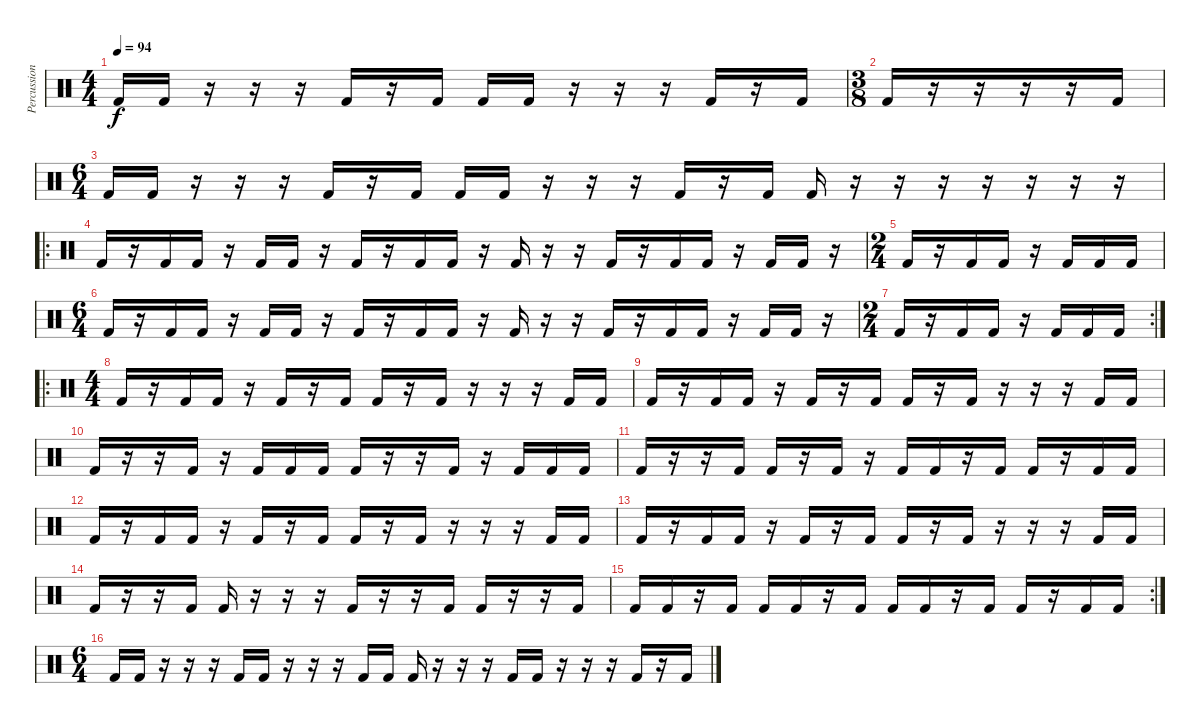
\track ("Percussion" "Percussion") {instrument percussion}
\staff {score}
\articulation defaults
\ts (4 4)
\tempo 94
\clef neutral
\ks c "Kick (hit) 2".16{dy f} "Kick (hit) 2".16
r.16 r.16 r.16 "Kick (hit) 2".16 r.16 "Kick (hit) 2".16 "Kick (hit) 2".16 "Kick (hit) 2".16 r.16 r.16 r.16 "Kick (hit) 2".16 r.16 "Kick (hit) 2".16 |
\ts (3 8)
"Kick (hit) 2".16 r.16 r.16 r.16 r.16 "Kick (hit) 2".16 |
\ts (6 4)
"Kick (hit) 2".16 "Kick (hit) 2".16 r.16 r.16 r.16 "Kick (hit) 2".16 r.16 "Kick (hit) 2".16 "Kick (hit) 2".16 "Kick (hit) 2".16 r.16 r.16 r.16 "Kick (hit) 2".16 r.16 "Kick (hit) 2".16 "Kick (hit) 2".16 r.16 r.16 r.16 r.16 r.16 r.16 r.16 |
\ro "Kick (hit) 2".16
r.16 "Kick (hit) 2".16 "Kick (hit) 2".16 r.16 "Kick (hit) 2".16 "Kick (hit) 2".16 r.16 "Kick (hit) 2".16 r.16 "Kick (hit) 2".16 "Kick (hit) 2".16 r.16 "Kick (hit) 2".16 r.16 r.16 "Kick (hit) 2".16 r.16 "Kick (hit) 2".16 "Kick (hit) 2".16 r.16 "Kick (hit) 2".16 "Kick (hit) 2".16 r.16 |
\ts (2 4)
"Kick (hit) 2".16 r.16 "Kick (hit) 2".16 "Kick (hit) 2".16 r.16 "Kick (hit) 2".16 "Kick (hit) 2".16 "Kick (hit) 2".16 |
\ts (6 4)
"Kick (hit) 2".16 r.16 "Kick (hit) 2".16 "Kick (hit) 2".16 r.16 "Kick (hit) 2".16 "Kick (hit) 2".16 r.16 "Kick (hit) 2".16 r.16 "Kick (hit) 2".16 "Kick (hit) 2".16 r.16 "Kick (hit) 2".16 r.16 r.16 "Kick (hit) 2".16 r.16 "Kick (hit) 2".16 "Kick (hit) 2".16 r.16 "Kick (hit) 2".16 "Kick (hit) 2".16 r.16 |
\rc 2
\ts (2 4)
"Kick (hit) 2".16 r.16 "Kick (hit) 2".16 "Kick (hit) 2".16 r.16 "Kick (hit) 2".16 "Kick (hit) 2".16 "Kick (hit) 2".16 |
\ro
\ts (4 4)
"Kick (hit) 2".16 r.16 "Kick (hit) 2".16 "Kick (hit) 2".16 r.16 "Kick (hit) 2".16 r.16 "Kick (hit) 2".16 "Kick (hit) 2".16 r.16 "Kick (hit) 2".16 r.16 r.16 r.16 "Kick (hit) 2".16 "Kick (hit) 2".16 |
"Kick (hit) 2".16 r.16 "Kick (hit) 2".16 "Kick (hit) 2".16 r.16 "Kick (hit) 2".16 r.16 "Kick (hit) 2".16 "Kick (hit) 2".16 r.16 "Kick (hit) 2".16 r.16 r.16 r.16 "Kick (hit) 2".16 "Kick (hit) 2".16 |
"Kick (hit) 2".16 r.16 r.16 "Kick (hit) 2".16 r.16 "Kick (hit) 2".16 "Kick (hit) 2".16 "Kick (hit) 2".16 "Kick (hit) 2".16 r.16 r.16 "Kick (hit) 2".16 r.16 "Kick (hit) 2".16 "Kick (hit) 2".16 "Kick (hit) 2".16 |
"Kick (hit) 2".16 r.16 r.16 "Kick (hit) 2".16 "Kick (hit) 2".16 r.16 "Kick (hit) 2".16 r.16 "Kick (hit) 2".16 "Kick (hit) 2".16 r.16 "Kick (hit) 2".16 "Kick (hit) 2".16 r.16 "Kick (hit) 2".16 "Kick (hit) 2".16 |
"Kick (hit) 2".16 r.16 "Kick (hit) 2".16 "Kick (hit) 2".16 r.16 "Kick (hit) 2".16 r.16 "Kick (hit) 2".16 "Kick (hit) 2".16 r.16 "Kick (hit) 2".16 r.16 r.16 r.16 "Kick (hit) 2".16 "Kick (hit) 2".16 |
"Kick (hit) 2".16 r.16 "Kick (hit) 2".16 "Kick (hit) 2".16 r.16 "Kick (hit) 2".16 r.16 "Kick (hit) 2".16 "Kick (hit) 2".16 r.16 "Kick (hit) 2".16 r.16 r.16 r.16 "Kick (hit) 2".16 "Kick (hit) 2".16 |
"Kick (hit) 2".16 r.16 r.16 "Kick (hit) 2".16 "Kick (hit) 2".16 r.16 r.16 r.16 "Kick (hit) 2".16 r.16 r.16 "Kick (hit) 2".16 "Kick (hit) 2".16 r.16 r.16 "Kick (hit) 2".16 |
\rc 2 "Kick (hit) 2".16 "Kick (hit) 2".16
r.16 "Kick (hit) 2".16 "Kick (hit) 2".16 "Kick (hit) 2".16 r.16 "Kick (hit) 2".16 "Kick (hit) 2".16 "Kick (hit) 2".16 r.16 "Kick (hit) 2".16 "Kick (hit) 2".16 r.16 "Kick (hit) 2".16 "Kick (hit) 2".16 |
\ts (6 4)
"Kick (hit) 2".16 "Kick (hit) 2".16 r.16 r.16 r.16 "Kick (hit) 2".16 "Kick (hit) 2".16 r.16 r.16 r.16 "Kick (hit) 2".16 "Kick (hit) 2".16 "Kick (hit) 2".16 r.16 r.16 r.16 "Kick (hit) 2".16 "Kick (hit) 2".16 r.16 r.16 r.16 "Kick (hit) 2".16 r.16 "Kick (hit) 2".16
